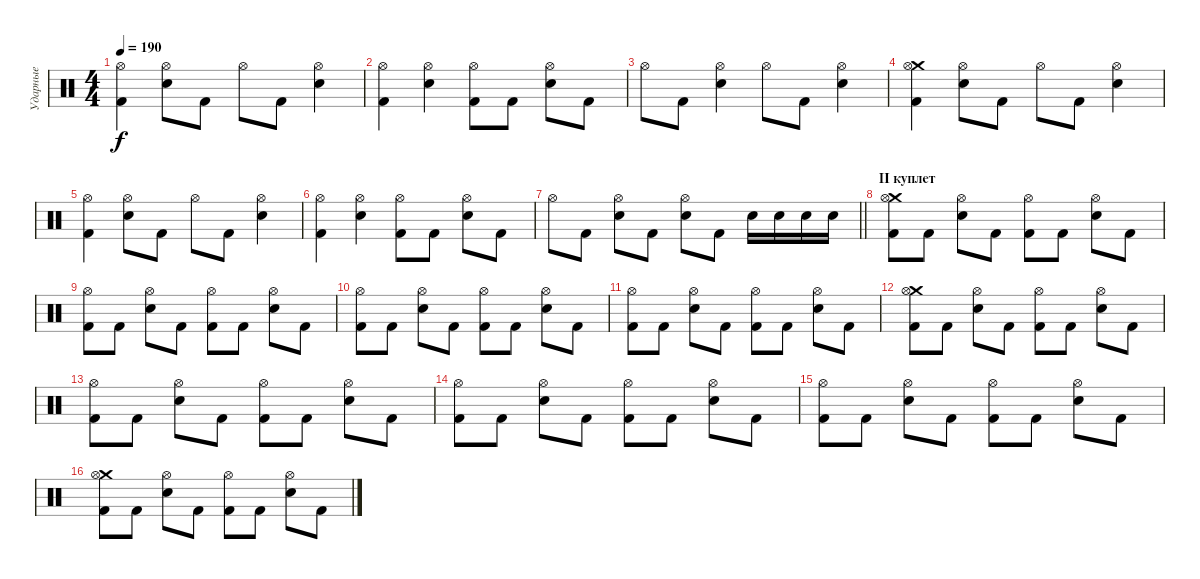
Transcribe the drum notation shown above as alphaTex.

\track ("Ударные" "Ударные") {instrument percussion}
\staff {score}
\articulation defaults
\ts (4 4)
\tempo 190
\clef neutral
\ks c
("Kick (hit) 2" "Hi-Hat (open)").4{dy f} ("Electric Snare (hit)" "Hi-Hat (open)").8 "Kick (hit) 2".8 "Hi-Hat (open)".8 "Kick (hit) 2".8 ("Electric Snare (hit)" "Hi-Hat (open)").4 |
("Kick (hit) 2" "Hi-Hat (open)").4 ("Electric Snare (hit)" "Hi-Hat (open)").4 ("Kick (hit) 2" "Hi-Hat (open)").8 "Kick (hit) 2".8 ("Electric Snare (hit)" "Hi-Hat (open)").8 "Kick (hit) 2".8 |
"Hi-Hat (open)".8 "Kick (hit) 2".8 ("Electric Snare (hit)" "Hi-Hat (open)").4 "Hi-Hat (open)".8 "Kick (hit) 2".8 ("Electric Snare (hit)" "Hi-Hat (open)").4 |
("Crash medium (hit)" "Kick (hit) 2" "Hi-Hat (open)").4 ("Electric Snare (hit)" "Hi-Hat (open)").8 "Kick (hit) 2".8 "Hi-Hat (open)".8 "Kick (hit) 2".8 ("Electric Snare (hit)" "Hi-Hat (open)").4 |
("Kick (hit) 2" "Hi-Hat (open)").4 ("Electric Snare (hit)" "Hi-Hat (open)").8 "Kick (hit) 2".8 "Hi-Hat (open)".8 "Kick (hit) 2".8 ("Electric Snare (hit)" "Hi-Hat (open)").4 |
("Kick (hit) 2" "Hi-Hat (open)").4 ("Electric Snare (hit)" "Hi-Hat (open)").4 ("Kick (hit) 2" "Hi-Hat (open)").8 "Kick (hit) 2".8 ("Electric Snare (hit)" "Hi-Hat (open)").8 "Kick (hit) 2".8 |
\barLineRight lightlight "Hi-Hat (open)".8 "Kick (hit) 2".8
("Electric Snare (hit)" "Hi-Hat (open)").8 "Kick (hit) 2".8 ("Electric Snare (hit)" "Hi-Hat (open)").8 "Kick (hit) 2".8 "Electric Snare (hit)".16 "Electric Snare (hit)".16 "Electric Snare (hit)".16 "Electric Snare (hit)".16 |
\section ("" "II куплет")
("Crash medium (hit)" "Kick (hit) 2" "Hi-Hat (open)").8 "Kick (hit) 2".8 ("Electric Snare (hit)" "Hi-Hat (open)").8 "Kick (hit) 2".8 ("Kick (hit) 2" "Hi-Hat (open)").8 "Kick (hit) 2".8 ("Electric Snare (hit)" "Hi-Hat (open)").8 "Kick (hit) 2".8 |
("Kick (hit) 2" "Hi-Hat (open)").8 "Kick (hit) 2".8 ("Electric Snare (hit)" "Hi-Hat (open)").8 "Kick (hit) 2".8 ("Kick (hit) 2" "Hi-Hat (open)").8 "Kick (hit) 2".8 ("Electric Snare (hit)" "Hi-Hat (open)").8 "Kick (hit) 2".8 |
("Kick (hit) 2" "Hi-Hat (open)").8 "Kick (hit) 2".8 ("Electric Snare (hit)" "Hi-Hat (open)").8 "Kick (hit) 2".8 ("Kick (hit) 2" "Hi-Hat (open)").8 "Kick (hit) 2".8 ("Electric Snare (hit)" "Hi-Hat (open)").8 "Kick (hit) 2".8 |
("Kick (hit) 2" "Hi-Hat (open)").8 "Kick (hit) 2".8 ("Electric Snare (hit)" "Hi-Hat (open)").8 "Kick (hit) 2".8 ("Kick (hit) 2" "Hi-Hat (open)").8 "Kick (hit) 2".8 ("Electric Snare (hit)" "Hi-Hat (open)").8 "Kick (hit) 2".8 |
("Crash medium (hit)" "Kick (hit) 2" "Hi-Hat (open)").8 "Kick (hit) 2".8 ("Electric Snare (hit)" "Hi-Hat (open)").8 "Kick (hit) 2".8 ("Kick (hit) 2" "Hi-Hat (open)").8 "Kick (hit) 2".8 ("Electric Snare (hit)" "Hi-Hat (open)").8 "Kick (hit) 2".8 |
("Kick (hit) 2" "Hi-Hat (open)").8 "Kick (hit) 2".8 ("Electric Snare (hit)" "Hi-Hat (open)").8 "Kick (hit) 2".8 ("Kick (hit) 2" "Hi-Hat (open)").8 "Kick (hit) 2".8 ("Electric Snare (hit)" "Hi-Hat (open)").8 "Kick (hit) 2".8 |
("Kick (hit) 2" "Hi-Hat (open)").8 "Kick (hit) 2".8 ("Electric Snare (hit)" "Hi-Hat (open)").8 "Kick (hit) 2".8 ("Kick (hit) 2" "Hi-Hat (open)").8 "Kick (hit) 2".8 ("Electric Snare (hit)" "Hi-Hat (open)").8 "Kick (hit) 2".8 |
("Kick (hit) 2" "Hi-Hat (open)").8 "Kick (hit) 2".8 ("Electric Snare (hit)" "Hi-Hat (open)").8 "Kick (hit) 2".8 ("Kick (hit) 2" "Hi-Hat (open)").8 "Kick (hit) 2".8 ("Electric Snare (hit)" "Hi-Hat (open)").8 "Kick (hit) 2".8 |
("Crash medium (hit)" "Kick (hit) 2" "Hi-Hat (open)").8 "Kick (hit) 2".8 ("Electric Snare (hit)" "Hi-Hat (open)").8 "Kick (hit) 2".8 ("Kick (hit) 2" "Hi-Hat (open)").8 "Kick (hit) 2".8 ("Electric Snare (hit)" "Hi-Hat (open)").8 "Kick (hit) 2".8
